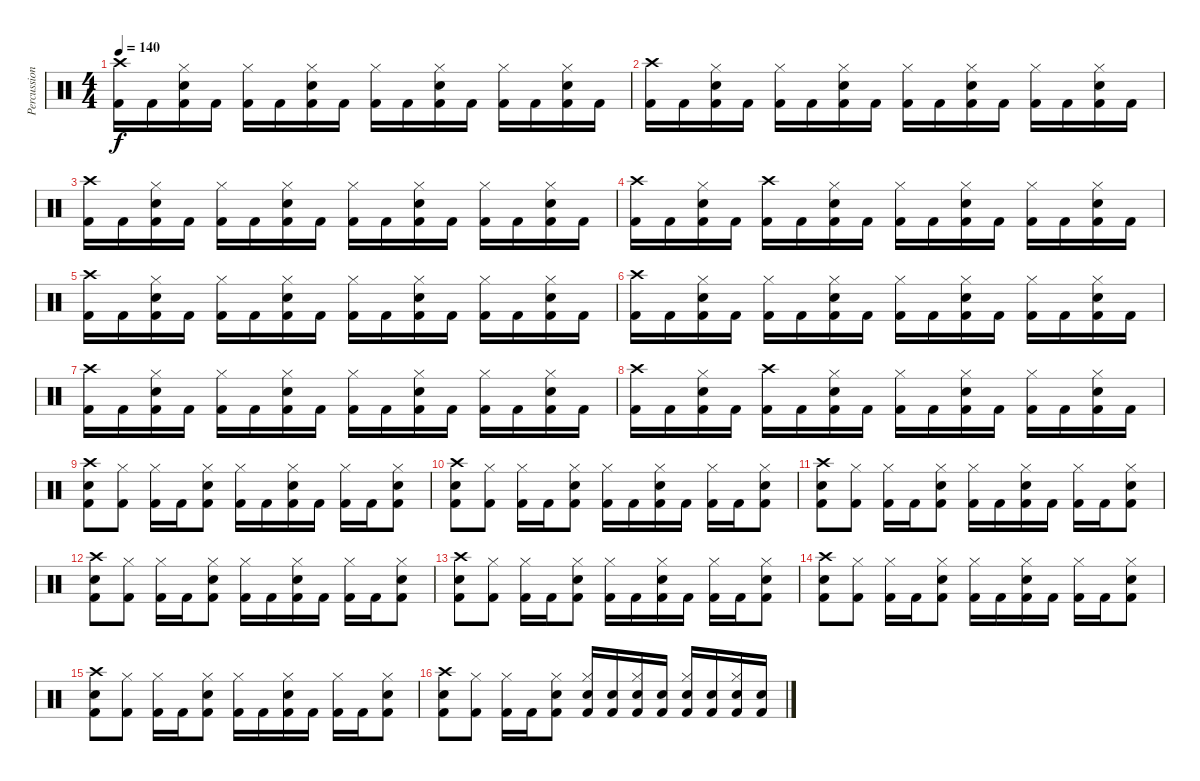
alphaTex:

\track ("Percussion" "Percussion") {instrument percussion}
\staff {score}
\articulation defaults
\ts (4 4)
\tempo 140
\clef neutral
\ks aminor
("Crash high (hit)" "Kick (hit) 2").16{dy f} "Kick (hit) 2".16 ("Hi-Hat (closed)" "Snare (hit) 2" "Kick (hit) 2").16 "Kick (hit) 2".16 ("Hi-Hat (closed)" "Kick (hit) 2").16 "Kick (hit) 2".16 ("Hi-Hat (closed)" "Snare (hit) 2" "Kick (hit) 2").16 "Kick (hit) 2".16 ("Hi-Hat (closed)" "Kick (hit) 2").16 "Kick (hit) 2".16 ("Hi-Hat (closed)" "Snare (hit) 2" "Kick (hit) 2").16 "Kick (hit) 2".16 ("Hi-Hat (closed)" "Kick (hit) 2").16 "Kick (hit) 2".16 ("Hi-Hat (closed)" "Snare (hit) 2" "Kick (hit) 2").16 "Kick (hit) 2".16 |
("Crash high (hit)" "Kick (hit) 2").16 "Kick (hit) 2".16 ("Hi-Hat (closed)" "Snare (hit) 2" "Kick (hit) 2").16 "Kick (hit) 2".16 ("Hi-Hat (closed)" "Kick (hit) 2").16 "Kick (hit) 2".16 ("Hi-Hat (closed)" "Snare (hit) 2" "Kick (hit) 2").16 "Kick (hit) 2".16 ("Hi-Hat (closed)" "Kick (hit) 2").16 "Kick (hit) 2".16 ("Hi-Hat (closed)" "Snare (hit) 2" "Kick (hit) 2").16 "Kick (hit) 2".16 ("Hi-Hat (closed)" "Kick (hit) 2").16 "Kick (hit) 2".16 ("Hi-Hat (closed)" "Snare (hit) 2" "Kick (hit) 2").16 "Kick (hit) 2".16 |
("Crash high (hit)" "Kick (hit) 2").16 "Kick (hit) 2".16 ("Hi-Hat (closed)" "Snare (hit) 2" "Kick (hit) 2").16 "Kick (hit) 2".16 ("Hi-Hat (closed)" "Kick (hit) 2").16 "Kick (hit) 2".16 ("Hi-Hat (closed)" "Snare (hit) 2" "Kick (hit) 2").16 "Kick (hit) 2".16 ("Hi-Hat (closed)" "Kick (hit) 2").16 "Kick (hit) 2".16 ("Hi-Hat (closed)" "Snare (hit) 2" "Kick (hit) 2").16 "Kick (hit) 2".16 ("Hi-Hat (closed)" "Kick (hit) 2").16 "Kick (hit) 2".16 ("Hi-Hat (closed)" "Snare (hit) 2" "Kick (hit) 2").16 "Kick (hit) 2".16 |
("Crash high (hit)" "Kick (hit) 2").16 "Kick (hit) 2".16 ("Hi-Hat (closed)" "Snare (hit) 2" "Kick (hit) 2").16 "Kick (hit) 2".16 ("Crash high (hit)" "Kick (hit) 2").16 "Kick (hit) 2".16 ("Hi-Hat (closed)" "Snare (hit) 2" "Kick (hit) 2").16 "Kick (hit) 2".16 ("Hi-Hat (closed)" "Kick (hit) 2").16 "Kick (hit) 2".16 ("Hi-Hat (closed)" "Snare (hit) 2" "Kick (hit) 2").16 "Kick (hit) 2".16 ("Hi-Hat (closed)" "Kick (hit) 2").16 "Kick (hit) 2".16 ("Hi-Hat (closed)" "Snare (hit) 2" "Kick (hit) 2").16 "Kick (hit) 2".16 |
("Crash high (hit)" "Kick (hit) 2").16 "Kick (hit) 2".16 ("Hi-Hat (closed)" "Snare (hit) 2" "Kick (hit) 2").16 "Kick (hit) 2".16 ("Hi-Hat (closed)" "Kick (hit) 2").16 "Kick (hit) 2".16 ("Hi-Hat (closed)" "Snare (hit) 2" "Kick (hit) 2").16 "Kick (hit) 2".16 ("Hi-Hat (closed)" "Kick (hit) 2").16 "Kick (hit) 2".16 ("Hi-Hat (closed)" "Snare (hit) 2" "Kick (hit) 2").16 "Kick (hit) 2".16 ("Hi-Hat (closed)" "Kick (hit) 2").16 "Kick (hit) 2".16 ("Hi-Hat (closed)" "Snare (hit) 2" "Kick (hit) 2").16 "Kick (hit) 2".16 |
("Crash high (hit)" "Kick (hit) 2").16 "Kick (hit) 2".16 ("Hi-Hat (closed)" "Snare (hit) 2" "Kick (hit) 2").16 "Kick (hit) 2".16 ("Hi-Hat (closed)" "Kick (hit) 2").16 "Kick (hit) 2".16 ("Hi-Hat (closed)" "Snare (hit) 2" "Kick (hit) 2").16 "Kick (hit) 2".16 ("Hi-Hat (closed)" "Kick (hit) 2").16 "Kick (hit) 2".16 ("Hi-Hat (closed)" "Snare (hit) 2" "Kick (hit) 2").16 "Kick (hit) 2".16 ("Hi-Hat (closed)" "Kick (hit) 2").16 "Kick (hit) 2".16 ("Hi-Hat (closed)" "Snare (hit) 2" "Kick (hit) 2").16 "Kick (hit) 2".16 |
("Crash high (hit)" "Kick (hit) 2").16 "Kick (hit) 2".16 ("Hi-Hat (closed)" "Snare (hit) 2" "Kick (hit) 2").16 "Kick (hit) 2".16 ("Hi-Hat (closed)" "Kick (hit) 2").16 "Kick (hit) 2".16 ("Hi-Hat (closed)" "Snare (hit) 2" "Kick (hit) 2").16 "Kick (hit) 2".16 ("Hi-Hat (closed)" "Kick (hit) 2").16 "Kick (hit) 2".16 ("Hi-Hat (closed)" "Snare (hit) 2" "Kick (hit) 2").16 "Kick (hit) 2".16 ("Hi-Hat (closed)" "Kick (hit) 2").16 "Kick (hit) 2".16 ("Hi-Hat (closed)" "Snare (hit) 2" "Kick (hit) 2").16 "Kick (hit) 2".16 |
("Crash high (hit)" "Kick (hit) 2").16 "Kick (hit) 2".16 ("Hi-Hat (closed)" "Snare (hit) 2" "Kick (hit) 2").16 "Kick (hit) 2".16 ("Crash high (hit)" "Kick (hit) 2").16 "Kick (hit) 2".16 ("Hi-Hat (closed)" "Snare (hit) 2" "Kick (hit) 2").16 "Kick (hit) 2".16 ("Hi-Hat (closed)" "Kick (hit) 2").16 "Kick (hit) 2".16 ("Hi-Hat (closed)" "Snare (hit) 2" "Kick (hit) 2").16 "Kick (hit) 2".16 ("Hi-Hat (closed)" "Kick (hit) 2").16 "Kick (hit) 2".16 ("Hi-Hat (closed)" "Snare (hit) 2" "Kick (hit) 2").16 "Kick (hit) 2".16 |
("Crash high (hit)" "Snare (hit) 2" "Kick (hit) 2").8 ("Hi-Hat (closed)" "Kick (hit) 2").8 ("Hi-Hat (closed)" "Kick (hit) 2").16 "Kick (hit) 2".16 ("Hi-Hat (closed)" "Snare (hit) 2" "Kick (hit) 2").8 ("Hi-Hat (closed)" "Kick (hit) 2").16 "Kick (hit) 2".16 ("Hi-Hat (closed)" "Snare (hit) 2" "Kick (hit) 2").16 "Kick (hit) 2".16 ("Hi-Hat (closed)" "Kick (hit) 2").16 "Kick (hit) 2".16 ("Hi-Hat (closed)" "Snare (hit) 2" "Kick (hit) 2").8 |
("Crash high (hit)" "Snare (hit) 2" "Kick (hit) 2").8 ("Hi-Hat (closed)" "Kick (hit) 2").8 ("Hi-Hat (closed)" "Kick (hit) 2").16 "Kick (hit) 2".16 ("Hi-Hat (closed)" "Snare (hit) 2" "Kick (hit) 2").8 ("Hi-Hat (closed)" "Kick (hit) 2").16 "Kick (hit) 2".16 ("Hi-Hat (closed)" "Snare (hit) 2" "Kick (hit) 2").16 "Kick (hit) 2".16 ("Hi-Hat (closed)" "Kick (hit) 2").16 "Kick (hit) 2".16 ("Hi-Hat (closed)" "Snare (hit) 2" "Kick (hit) 2").8 |
("Crash high (hit)" "Snare (hit) 2" "Kick (hit) 2").8 ("Hi-Hat (closed)" "Kick (hit) 2").8 ("Hi-Hat (closed)" "Kick (hit) 2").16 "Kick (hit) 2".16 ("Hi-Hat (closed)" "Snare (hit) 2" "Kick (hit) 2").8 ("Hi-Hat (closed)" "Kick (hit) 2").16 "Kick (hit) 2".16 ("Hi-Hat (closed)" "Snare (hit) 2" "Kick (hit) 2").16 "Kick (hit) 2".16 ("Hi-Hat (closed)" "Kick (hit) 2").16 "Kick (hit) 2".16 ("Hi-Hat (closed)" "Snare (hit) 2" "Kick (hit) 2").8 |
("Crash high (hit)" "Snare (hit) 2" "Kick (hit) 2").8 ("Hi-Hat (closed)" "Kick (hit) 2").8 ("Hi-Hat (closed)" "Kick (hit) 2").16 "Kick (hit) 2".16 ("Hi-Hat (closed)" "Snare (hit) 2" "Kick (hit) 2").8 ("Hi-Hat (closed)" "Kick (hit) 2").16 "Kick (hit) 2".16 ("Hi-Hat (closed)" "Snare (hit) 2" "Kick (hit) 2").16 "Kick (hit) 2".16 ("Hi-Hat (closed)" "Kick (hit) 2").16 "Kick (hit) 2".16 ("Hi-Hat (closed)" "Snare (hit) 2" "Kick (hit) 2").8 |
("Crash high (hit)" "Snare (hit) 2" "Kick (hit) 2").8 ("Hi-Hat (closed)" "Kick (hit) 2").8 ("Hi-Hat (closed)" "Kick (hit) 2").16 "Kick (hit) 2".16 ("Hi-Hat (closed)" "Snare (hit) 2" "Kick (hit) 2").8 ("Hi-Hat (closed)" "Kick (hit) 2").16 "Kick (hit) 2".16 ("Hi-Hat (closed)" "Snare (hit) 2" "Kick (hit) 2").16 "Kick (hit) 2".16 ("Hi-Hat (closed)" "Kick (hit) 2").16 "Kick (hit) 2".16 ("Hi-Hat (closed)" "Snare (hit) 2" "Kick (hit) 2").8 |
("Crash high (hit)" "Snare (hit) 2" "Kick (hit) 2").8 ("Hi-Hat (closed)" "Kick (hit) 2").8 ("Hi-Hat (closed)" "Kick (hit) 2").16 "Kick (hit) 2".16 ("Hi-Hat (closed)" "Snare (hit) 2" "Kick (hit) 2").8 ("Hi-Hat (closed)" "Kick (hit) 2").16 "Kick (hit) 2".16 ("Hi-Hat (closed)" "Snare (hit) 2" "Kick (hit) 2").16 "Kick (hit) 2".16 ("Hi-Hat (closed)" "Kick (hit) 2").16 "Kick (hit) 2".16 ("Hi-Hat (closed)" "Snare (hit) 2" "Kick (hit) 2").8 |
("Crash high (hit)" "Snare (hit) 2" "Kick (hit) 2").8 ("Hi-Hat (closed)" "Kick (hit) 2").8 ("Hi-Hat (closed)" "Kick (hit) 2").16 "Kick (hit) 2".16 ("Hi-Hat (closed)" "Snare (hit) 2" "Kick (hit) 2").8 ("Hi-Hat (closed)" "Kick (hit) 2").16 "Kick (hit) 2".16 ("Hi-Hat (closed)" "Snare (hit) 2" "Kick (hit) 2").16 "Kick (hit) 2".16 ("Hi-Hat (closed)" "Kick (hit) 2").16 "Kick (hit) 2".16 ("Hi-Hat (closed)" "Snare (hit) 2" "Kick (hit) 2").8 |
("Crash high (hit)" "Snare (hit) 2" "Kick (hit) 2").8 ("Hi-Hat (closed)" "Kick (hit) 2").8 ("Hi-Hat (closed)" "Kick (hit) 2").16 "Kick (hit) 2".16 ("Hi-Hat (closed)" "Snare (hit) 2" "Kick (hit) 2").8 ("Hi-Hat (closed)" "Snare (hit) 2" "Kick (hit) 2").16 ("Snare (hit) 2" "Kick (hit) 2").16 ("Hi-Hat (closed)" "Snare (hit) 2" "Kick (hit) 2").16 ("Snare (hit) 2" "Kick (hit) 2").16 ("Hi-Hat (closed)" "Snare (hit) 2" "Kick (hit) 2").16 ("Snare (hit) 2" "Kick (hit) 2").16 ("Hi-Hat (closed)" "Snare (hit) 2" "Kick (hit) 2").16 ("Snare (hit) 2" "Kick (hit) 2").16
